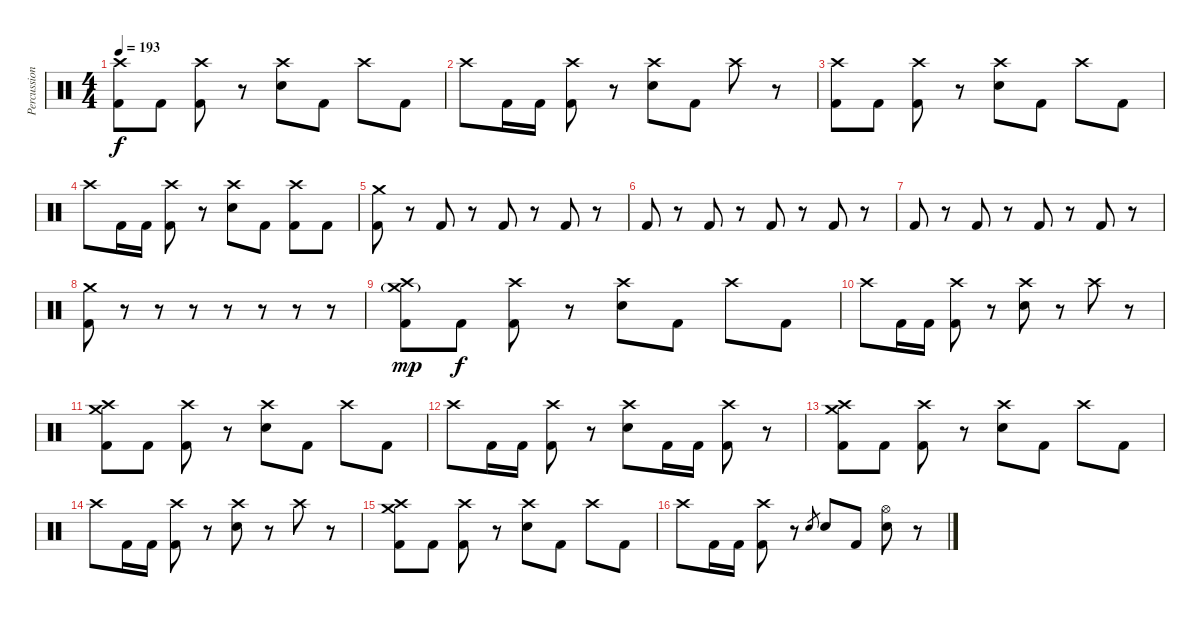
\track ("Percussion" "Percussion") {instrument percussion}
\staff {score}
\articulation defaults
\ts (4 4)
\tempo 193
\clef neutral
\ks c
("Crash high (hit)" "Kick (hit) 2").8{dy f} "Kick (hit) 2".8 ("Crash high (hit)" "Kick (hit) 2").8 r.8 ("Crash high (hit)" "Snare (hit) 2").8 "Kick (hit) 2".8 "Crash high (hit)".8 "Kick (hit) 2".8 |
"Crash high (hit)".8 "Kick (hit) 2".16 "Kick (hit) 2".16 ("Crash high (hit)" "Kick (hit) 2").8 r.8 ("Crash high (hit)" "Snare (hit) 2").8 "Kick (hit) 2".8 "Crash high (hit)".8 r.8 |
("Crash high (hit)" "Kick (hit) 2").8 "Kick (hit) 2".8 ("Crash high (hit)" "Kick (hit) 2").8 r.8 ("Crash high (hit)" "Snare (hit) 2").8 "Kick (hit) 2".8 "Crash high (hit)".8 "Kick (hit) 2".8 |
"Crash high (hit)".8 "Kick (hit) 2".16 "Kick (hit) 2".16 ("Crash high (hit)" "Kick (hit) 2").8 r.8 ("Crash high (hit)" "Snare (hit) 2").8 "Kick (hit) 2".8 ("Crash high (hit)" "Kick (hit) 2").8 "Kick (hit) 2".8 |
("Crash medium (hit)" "Kick (hit) 2").8 r.8 "Kick (hit) 2".8 r.8 "Kick (hit) 2".8 r.8 "Kick (hit) 2".8 r.8 |
"Kick (hit) 2".8 r.8 "Kick (hit) 2".8 r.8 "Kick (hit) 2".8 r.8 "Kick (hit) 2".8 r.8 |
"Kick (hit) 2".8 r.8 "Kick (hit) 2".8 r.8 "Kick (hit) 2".8 r.8 "Kick (hit) 2".8 r.8 |
("Crash medium (hit)" "Kick (hit) 2").8 r.8 r.8 r.8 r.8 r.8 r.8 r.8 |
("Crash high (hit)" "Crash medium (hit)"{g} "Kick (hit) 2").8{dy mp} "Kick (hit) 2".8{dy f} ("Crash high (hit)" "Kick (hit) 2").8 r.8 ("Crash high (hit)" "Snare (hit) 2").8 "Kick (hit) 2".8 "Crash high (hit)".8 "Kick (hit) 2".8 |
"Crash high (hit)".8 "Kick (hit) 2".16 "Kick (hit) 2".16 ("Crash high (hit)" "Kick (hit) 2").8 r.8 ("Crash high (hit)" "Snare (hit) 2").8 r.8 "Crash high (hit)".8 r.8 |
("Crash high (hit)" "Crash medium (hit)" "Kick (hit) 2").8 "Kick (hit) 2".8 ("Crash high (hit)" "Kick (hit) 2").8 r.8 ("Crash high (hit)" "Snare (hit) 2").8 "Kick (hit) 2".8 "Crash high (hit)".8 "Kick (hit) 2".8 |
"Crash high (hit)".8 "Kick (hit) 2".16 "Kick (hit) 2".16 ("Crash high (hit)" "Kick (hit) 2").8 r.8 ("Crash high (hit)" "Snare (hit) 2").8 "Kick (hit) 2".16 "Kick (hit) 2".16 ("Crash high (hit)" "Kick (hit) 2").8 r.8 |
("Crash high (hit)" "Crash medium (hit)" "Kick (hit) 2").8 "Kick (hit) 2".8 ("Crash high (hit)" "Kick (hit) 2").8 r.8 ("Crash high (hit)" "Snare (hit) 2").8 "Kick (hit) 2".8 "Crash high (hit)".8 "Kick (hit) 2".8 |
"Crash high (hit)".8 "Kick (hit) 2".16 "Kick (hit) 2".16 ("Crash high (hit)" "Kick (hit) 2").8 r.8 ("Crash high (hit)" "Snare (hit) 2").8 r.8 "Crash high (hit)".8 r.8 |
("Crash high (hit)" "Crash medium (hit)" "Kick (hit) 2").8 "Kick (hit) 2".8 ("Crash high (hit)" "Kick (hit) 2").8 r.8 ("Crash high (hit)" "Snare (hit) 2").8 "Kick (hit) 2".8 "Crash high (hit)".8 "Kick (hit) 2".8 |
"Crash high (hit)".8 "Kick (hit) 2".16 "Kick (hit) 2".16 ("Crash high (hit)" "Kick (hit) 2").8 r.8 "Snare (hit) 2".8{gr} "Snare (hit) 2".8 "Kick (hit) 2".8 ("Hi-Hat (open)" "Snare (hit) 2").8 r.8
